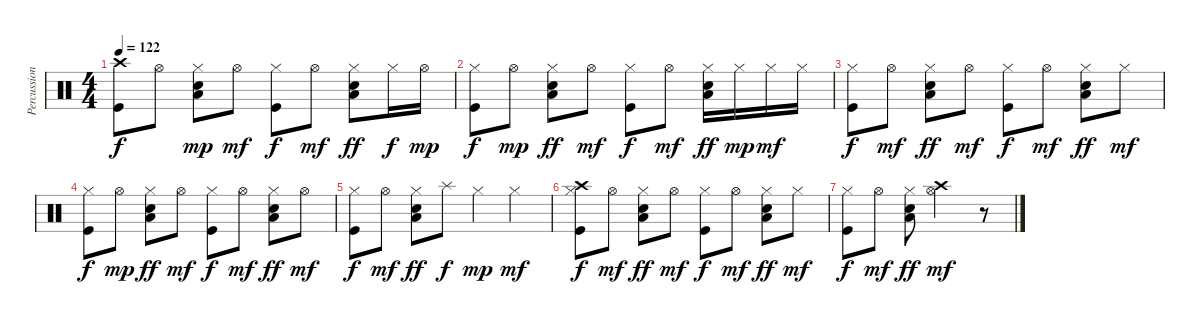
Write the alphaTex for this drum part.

\track ("Percussioni" "Percussion") {instrument percussion}
\staff {score}
\articulation defaults
\ts (4 4)
\tempo 122
\clef neutral
\ks c
("Crash high (hit)" "Kick (hit)").8{dy f} "Hi-Hat (open)".8 ("Low Floor Tom (hit)" "Hi-Hat (closed)" "Snare (hit) 2").8{dy mp} "Hi-Hat (open)".8{dy mf} ("Hi-Hat (closed)" "Kick (hit)").8{dy f} "Hi-Hat (open)".8{dy mf} ("Low Floor Tom (hit)" "Hi-Hat (closed)" "Snare (hit) 2").8{dy ff} "Hi-Hat (closed)".16{dy f} "Hi-Hat (open)".16{dy mp} |
("Hi-Hat (closed)" "Kick (hit)").8{dy f} "Hi-Hat (open)".8{dy mp} ("Low Floor Tom (hit)" "Hi-Hat (closed)" "Snare (hit) 2").8{dy ff} "Hi-Hat (open)".8{dy mf} ("Hi-Hat (closed)" "Kick (hit)").8{dy f} "Hi-Hat (open)".8{dy mf} ("Low Floor Tom (hit)" "Hi-Hat (closed)" "Snare (hit) 2").16{dy ff} "Hi-Hat (closed)".16{dy mp} "Hi-Hat (closed)".16{dy mf} "Hi-Hat (closed)".16 |
("Hi-Hat (closed)" "Kick (hit)").8{dy f} "Hi-Hat (open)".8{dy mf} ("Low Floor Tom (hit)" "Hi-Hat (closed)" "Snare (hit) 2").8{dy ff} "Hi-Hat (open)".8{dy mf} ("Hi-Hat (closed)" "Kick (hit)").8{dy f} "Hi-Hat (open)".8{dy mf} ("Low Floor Tom (hit)" "Hi-Hat (closed)" "Snare (hit) 2").8{dy ff} "Hi-Hat (closed)".8{dy mf} |
("Hi-Hat (closed)" "Kick (hit)").8{dy f} "Hi-Hat (open)".8{dy mp} ("Low Floor Tom (hit)" "Hi-Hat (closed)" "Snare (hit) 2").8{dy ff} "Hi-Hat (open)".8{dy mf} ("Hi-Hat (closed)" "Kick (hit)").8{dy f} "Hi-Hat (open)".8{dy mf} ("Low Floor Tom (hit)" "Hi-Hat (closed)" "Snare (hit) 2").8{dy ff} "Hi-Hat (open)".8{dy mf} |
("Hi-Hat (closed)" "Kick (hit)").8{dy f} "Hi-Hat (open)".8{dy mf} ("Low Floor Tom (hit)" "Hi-Hat (closed)" "Snare (hit) 2").8{dy ff} "Splash (hit)".8{dy f} "Hi-Hat (closed)".4{dy mp} "Hi-Hat (closed)".4{dy mf} |
("Crash high (hit)" "Hi-Hat (closed)" "Kick (hit)").8{dy f} "Hi-Hat (open)".8{dy mf} ("Low Floor Tom (hit)" "Hi-Hat (closed)" "Snare (hit) 2").8{dy ff} "Hi-Hat (open)".8{dy mf} ("Hi-Hat (closed)" "Kick (hit)").8{dy f} "Hi-Hat (open)".8{dy mf} ("Low Floor Tom (hit)" "Hi-Hat (closed)" "Snare (hit) 2").8{dy ff} "Hi-Hat (closed)".8{dy mf} |
("Hi-Hat (closed)" "Kick (hit)").8{dy f} "Hi-Hat (open)".8{dy mf} ("Low Floor Tom (hit)" "Hi-Hat (closed)" "Snare (hit) 2").8{dy ff} ("Crash high (hit)" "Hi-Hat (open)").2{dy mf} r.8
